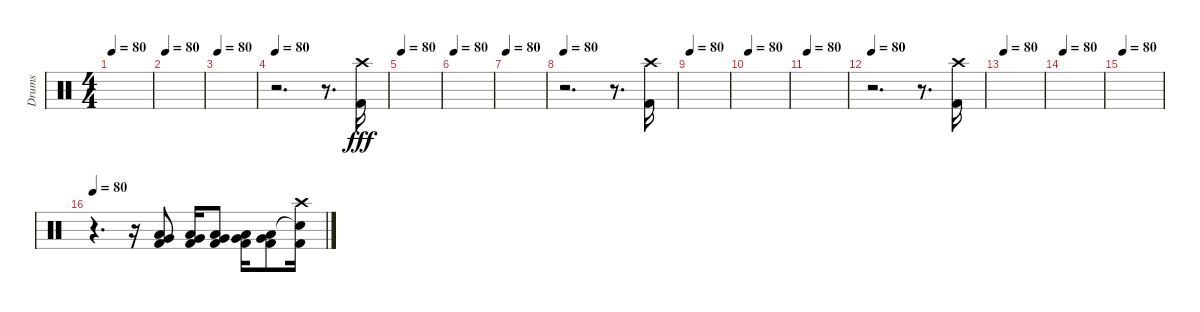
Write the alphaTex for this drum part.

\track ("Drums" "Drums") {instrument percussion}
\staff {score}
\articulation defaults
\ts (4 4)
\tempo 80
\clef neutral
\ks c
|
\tempo 80
|
\tempo 80
|
\tempo 80
r.2{d} r.8{d} ("Crash high (hit)" "Kick (hit) 2").16{dy fff} |
\tempo 80
|
\tempo 80
|
\tempo 80
|
\tempo 80
r.2{d} r.8{d} ("Crash high (hit)" "Kick (hit) 2").16 |
\tempo 80
|
\tempo 80
|
\tempo 80
|
\tempo 80
r.2{d} r.8{d} ("Crash high (hit)" "Kick (hit) 2").16 |
\tempo 80
|
\tempo 80
|
\tempo 80
|
\tempo 80
r.4{d} r.16 ("Low Tom (hit)" "Very Low Tom (hit)" "Kick (hit) 2").8 ("Low Tom (hit)" "Very Low Tom (hit)" "Kick (hit) 2").16 ("Low Tom (hit)" "Very Low Tom (hit)" "Kick (hit) 2").8 ("Very Low Tom (hit)" "Low Floor Tom (hit)" "Kick (hit) 2").16 ("Very Low Tom (hit)" "Low Floor Tom (hit)" "Kick (hit) 2").8 ("Crash high (hit)" "Snare (hit)"{t} "Kick (hit) 2").16
